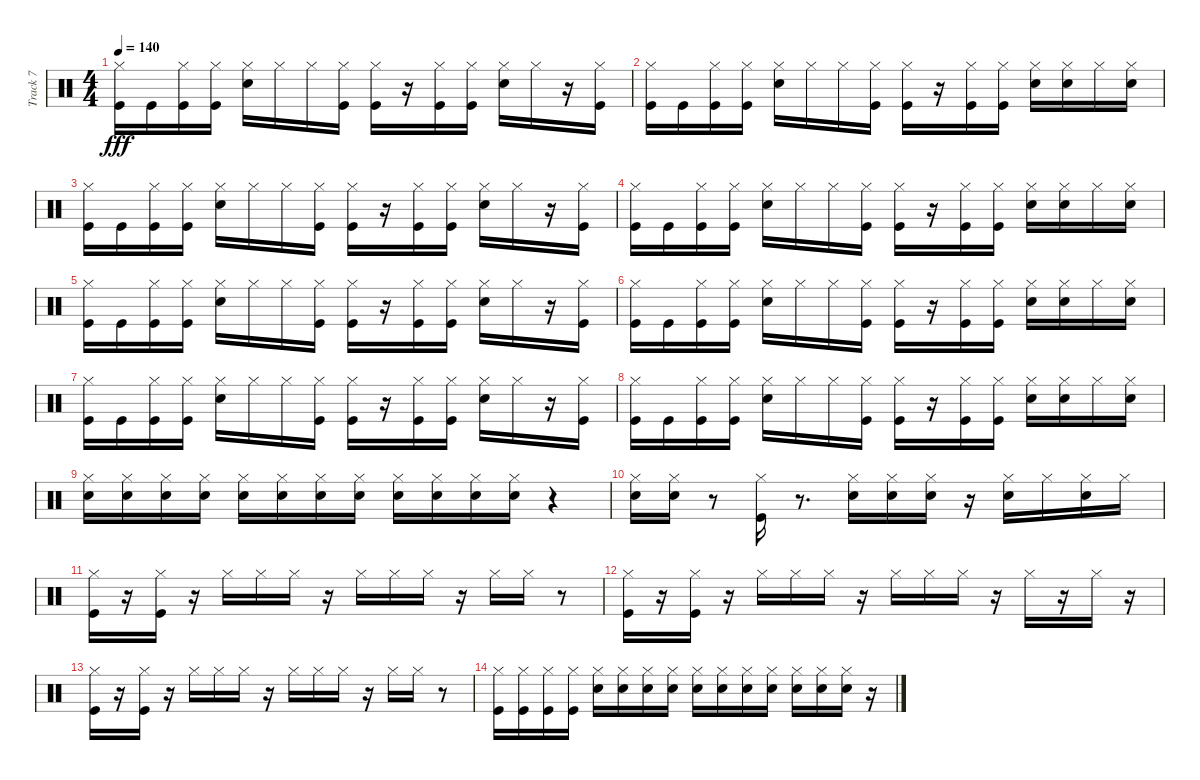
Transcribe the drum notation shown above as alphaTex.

\track ("Track 7" "Track 7") {instrument percussion}
\staff {score}
\articulation defaults
\ts (4 4)
\tempo 140
\clef neutral
\ks c
("Kick (hit)" "Hi-Hat (closed)").16{dy fff} "Kick (hit)".16 ("Kick (hit)" "Hi-Hat (closed)").16 ("Kick (hit)" "Hi-Hat (closed)").16 ("Snare (hit) 2" "Hi-Hat (closed)").16 "Hi-Hat (closed)".16 "Hi-Hat (closed)".16 ("Kick (hit)" "Hi-Hat (closed)").16 ("Kick (hit)" "Hi-Hat (closed)").16 r.16 ("Kick (hit)" "Hi-Hat (closed)").16 ("Kick (hit)" "Hi-Hat (closed)").16 ("Snare (hit) 2" "Hi-Hat (closed)").16 "Hi-Hat (closed)".16 r.16 ("Kick (hit)" "Hi-Hat (closed)").16 |
("Kick (hit)" "Hi-Hat (closed)").16 "Kick (hit)".16 ("Kick (hit)" "Hi-Hat (closed)").16 ("Kick (hit)" "Hi-Hat (closed)").16 ("Snare (hit) 2" "Hi-Hat (closed)").16 "Hi-Hat (closed)".16 "Hi-Hat (closed)".16 ("Kick (hit)" "Hi-Hat (closed)").16 ("Kick (hit)" "Hi-Hat (closed)").16 r.16 ("Kick (hit)" "Hi-Hat (closed)").16 ("Kick (hit)" "Hi-Hat (closed)").16 ("Snare (hit) 2" "Hi-Hat (closed)").16 ("Snare (hit) 2" "Hi-Hat (closed)").16 "Hi-Hat (closed)".16 ("Snare (hit) 2" "Hi-Hat (closed)").16 |
("Kick (hit)" "Hi-Hat (closed)").16 "Kick (hit)".16 ("Kick (hit)" "Hi-Hat (closed)").16 ("Kick (hit)" "Hi-Hat (closed)").16 ("Snare (hit) 2" "Hi-Hat (closed)").16 "Hi-Hat (closed)".16 "Hi-Hat (closed)".16 ("Kick (hit)" "Hi-Hat (closed)").16 ("Kick (hit)" "Hi-Hat (closed)").16 r.16 ("Kick (hit)" "Hi-Hat (closed)").16 ("Kick (hit)" "Hi-Hat (closed)").16 ("Snare (hit) 2" "Hi-Hat (closed)").16 "Hi-Hat (closed)".16 r.16 ("Kick (hit)" "Hi-Hat (closed)").16 |
("Kick (hit)" "Hi-Hat (closed)").16 "Kick (hit)".16 ("Kick (hit)" "Hi-Hat (closed)").16 ("Kick (hit)" "Hi-Hat (closed)").16 ("Snare (hit) 2" "Hi-Hat (closed)").16 "Hi-Hat (closed)".16 "Hi-Hat (closed)".16 ("Kick (hit)" "Hi-Hat (closed)").16 ("Kick (hit)" "Hi-Hat (closed)").16 r.16 ("Kick (hit)" "Hi-Hat (closed)").16 ("Kick (hit)" "Hi-Hat (closed)").16 ("Snare (hit) 2" "Hi-Hat (closed)").16 ("Snare (hit) 2" "Hi-Hat (closed)").16 "Hi-Hat (closed)".16 ("Snare (hit) 2" "Hi-Hat (closed)").16 |
("Kick (hit)" "Hi-Hat (closed)").16 "Kick (hit)".16 ("Kick (hit)" "Hi-Hat (closed)").16 ("Kick (hit)" "Hi-Hat (closed)").16 ("Snare (hit) 2" "Hi-Hat (closed)").16 "Hi-Hat (closed)".16 "Hi-Hat (closed)".16 ("Kick (hit)" "Hi-Hat (closed)").16 ("Kick (hit)" "Hi-Hat (closed)").16 r.16 ("Kick (hit)" "Hi-Hat (closed)").16 ("Kick (hit)" "Hi-Hat (closed)").16 ("Snare (hit) 2" "Hi-Hat (closed)").16 "Hi-Hat (closed)".16 r.16 ("Kick (hit)" "Hi-Hat (closed)").16 |
("Kick (hit)" "Hi-Hat (closed)").16 "Kick (hit)".16 ("Kick (hit)" "Hi-Hat (closed)").16 ("Kick (hit)" "Hi-Hat (closed)").16 ("Snare (hit) 2" "Hi-Hat (closed)").16 "Hi-Hat (closed)".16 "Hi-Hat (closed)".16 ("Kick (hit)" "Hi-Hat (closed)").16 ("Kick (hit)" "Hi-Hat (closed)").16 r.16 ("Kick (hit)" "Hi-Hat (closed)").16 ("Kick (hit)" "Hi-Hat (closed)").16 ("Snare (hit) 2" "Hi-Hat (closed)").16 ("Snare (hit) 2" "Hi-Hat (closed)").16 "Hi-Hat (closed)".16 ("Snare (hit) 2" "Hi-Hat (closed)").16 |
("Kick (hit)" "Hi-Hat (closed)").16 "Kick (hit)".16 ("Kick (hit)" "Hi-Hat (closed)").16 ("Kick (hit)" "Hi-Hat (closed)").16 ("Snare (hit) 2" "Hi-Hat (closed)").16 "Hi-Hat (closed)".16 "Hi-Hat (closed)".16 ("Kick (hit)" "Hi-Hat (closed)").16 ("Kick (hit)" "Hi-Hat (closed)").16 r.16 ("Kick (hit)" "Hi-Hat (closed)").16 ("Kick (hit)" "Hi-Hat (closed)").16 ("Snare (hit) 2" "Hi-Hat (closed)").16 "Hi-Hat (closed)".16 r.16 ("Kick (hit)" "Hi-Hat (closed)").16 |
("Kick (hit)" "Hi-Hat (closed)").16 "Kick (hit)".16 ("Kick (hit)" "Hi-Hat (closed)").16 ("Kick (hit)" "Hi-Hat (closed)").16 ("Snare (hit) 2" "Hi-Hat (closed)").16 "Hi-Hat (closed)".16 "Hi-Hat (closed)".16 ("Kick (hit)" "Hi-Hat (closed)").16 ("Kick (hit)" "Hi-Hat (closed)").16 r.16 ("Kick (hit)" "Hi-Hat (closed)").16 ("Kick (hit)" "Hi-Hat (closed)").16 ("Snare (hit) 2" "Hi-Hat (closed)").16 ("Snare (hit) 2" "Hi-Hat (closed)").16 "Hi-Hat (closed)".16 ("Snare (hit) 2" "Hi-Hat (closed)").16 |
("Snare (hit) 2" "Hi-Hat (closed)").16 ("Snare (hit) 2" "Hi-Hat (closed)").16 ("Snare (hit) 2" "Hi-Hat (closed)").16 ("Snare (hit) 2" "Hi-Hat (closed)").16 ("Snare (hit) 2" "Hi-Hat (closed)").16 ("Snare (hit) 2" "Hi-Hat (closed)").16 ("Snare (hit) 2" "Hi-Hat (closed)").16 ("Snare (hit) 2" "Hi-Hat (closed)").16 ("Snare (hit) 2" "Hi-Hat (closed)").16 ("Snare (hit) 2" "Hi-Hat (closed)").16 ("Snare (hit) 2" "Hi-Hat (closed)").16 ("Snare (hit) 2" "Hi-Hat (closed)").16 r.4 |
("Snare (hit) 2" "Hi-Hat (closed)").16 ("Snare (hit) 2" "Hi-Hat (closed)").16 r.8 ("Kick (hit)" "Hi-Hat (closed)").16 r.8{d} ("Snare (hit) 2" "Hi-Hat (closed)").16 ("Snare (hit) 2" "Hi-Hat (closed)").16 ("Snare (hit) 2" "Hi-Hat (closed)").16 r.16 ("Snare (hit) 2" "Hi-Hat (closed)").16 "Hi-Hat (closed)".16 ("Snare (hit) 2" "Hi-Hat (closed)").16 "Hi-Hat (closed)".16 |
("Kick (hit)" "Hi-Hat (closed)").16 r.16 ("Kick (hit)" "Hi-Hat (closed)").16 r.16 "Hi-Hat (closed)".16 "Hi-Hat (closed)".16 "Hi-Hat (closed)".16 r.16 "Hi-Hat (closed)".16 "Hi-Hat (closed)".16 "Hi-Hat (closed)".16 r.16 "Hi-Hat (closed)".16 "Hi-Hat (closed)".16 r.8 |
("Kick (hit)" "Hi-Hat (closed)").16 r.16 ("Kick (hit)" "Hi-Hat (closed)").16 r.16 "Hi-Hat (closed)".16 "Hi-Hat (closed)".16 "Hi-Hat (closed)".16 r.16 "Hi-Hat (closed)".16 "Hi-Hat (closed)".16 "Hi-Hat (closed)".16 r.16 "Hi-Hat (closed)".16 r.16 "Hi-Hat (closed)".16 r.16 |
("Kick (hit)" "Hi-Hat (closed)").16 r.16 ("Kick (hit)" "Hi-Hat (closed)").16 r.16 "Hi-Hat (closed)".16 "Hi-Hat (closed)".16 "Hi-Hat (closed)".16 r.16 "Hi-Hat (closed)".16 "Hi-Hat (closed)".16 "Hi-Hat (closed)".16 r.16 "Hi-Hat (closed)".16 "Hi-Hat (closed)".16 r.8 |
("Kick (hit)" "Hi-Hat (closed)").16 ("Kick (hit)" "Hi-Hat (closed)").16 ("Kick (hit)" "Hi-Hat (closed)").16 ("Kick (hit)" "Hi-Hat (closed)").16 ("Snare (hit) 2" "Hi-Hat (closed)").16 ("Snare (hit) 2" "Hi-Hat (closed)").16 ("Snare (hit) 2" "Hi-Hat (closed)").16 ("Snare (hit) 2" "Hi-Hat (closed)").16 ("Snare (hit) 2" "Hi-Hat (closed)").16 ("Snare (hit) 2" "Hi-Hat (closed)").16 ("Snare (hit) 2" "Hi-Hat (closed)").16 ("Snare (hit) 2" "Hi-Hat (closed)").16 ("Snare (hit) 2" "Hi-Hat (closed)").16 ("Snare (hit) 2" "Hi-Hat (closed)").16 ("Snare (hit) 2" "Hi-Hat (closed)").16 r.16
